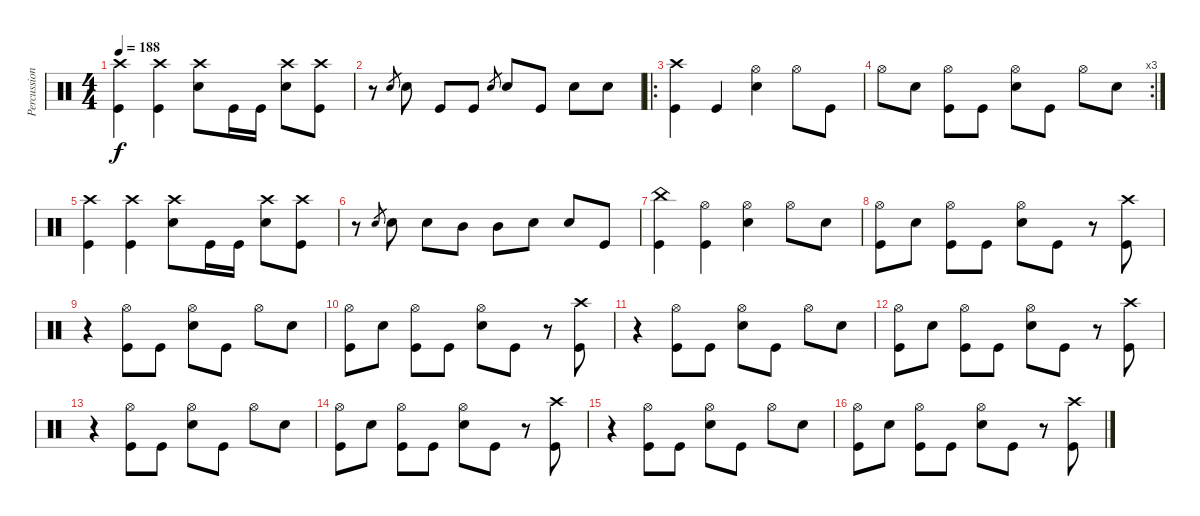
\track ("Percussion" "Percussion") {instrument percussion}
\staff {score}
\articulation defaults
\ts (4 4)
\tempo 188
\clef neutral
\ks c
("Kick (hit)" "Crash high (hit)").4{dy f} ("Crash high (hit)" "Kick (hit)").4 ("Snare (hit) 2" "Crash high (hit)").8 "Kick (hit)".16 "Kick (hit)".16 ("Snare (hit) 2" "Crash high (hit)").8 ("Kick (hit)" "Crash high (hit)").8 |
r.8 "Snare (hit) 2".8{gr} "Snare (hit) 2".8 "Kick (hit)".8 "Kick (hit)".8 "Snare (hit) 2".8{gr} "Snare (hit) 2".8 "Kick (hit)".8 "Snare (hit) 2".8 "Snare (hit) 2".8 |
\ro
("Crash high (hit)" "Kick (hit)").4 "Kick (hit)".4 ("Snare (hit) 2" "Hi-Hat (open)").4 "Hi-Hat (open)".8 "Kick (hit)".8 |
\rc 3 "Hi-Hat (open)".8 "Snare (hit) 2".8
("Kick (hit)" "Hi-Hat (open)").8 "Kick (hit)".8 ("Snare (hit) 2" "Hi-Hat (open)").8 "Kick (hit)".8 "Hi-Hat (open)".8 "Snare (hit) 2".8 |
("Kick (hit)" "Crash high (hit)").4 ("Crash high (hit)" "Kick (hit)").4 ("Snare (hit) 2" "Crash high (hit)").8 "Kick (hit)".16 "Kick (hit)".16 ("Snare (hit) 2" "Crash high (hit)").8 ("Kick (hit)" "Crash high (hit)").8 |
r.8 "Snare (hit) 2".8{gr} "Snare (hit) 2".8 "Snare (hit) 2".8 "Mid Tom (hit)".8 "Mid Tom (hit)".8 "Snare (hit) 2".8 "Snare (hit) 2".8 "Kick (hit)".8 |
("Kick (hit)" "China (hit)").4 ("Kick (hit)" "Hi-Hat (open)").4 ("Snare (hit) 2" "Hi-Hat (open)").4 "Hi-Hat (open)".8 "Snare (hit) 2".8 |
("Kick (hit)" "Hi-Hat (open)").8 "Snare (hit) 2".8 ("Kick (hit)" "Hi-Hat (open)").8 "Kick (hit)".8 ("Snare (hit) 2" "Hi-Hat (open)").8 "Kick (hit)".8 r.8 ("Kick (hit)" "Crash high (hit)").8 |
r.4 ("Kick (hit)" "Hi-Hat (open)").8 "Kick (hit)".8 ("Snare (hit) 2" "Hi-Hat (open)").8 "Kick (hit)".8 "Hi-Hat (open)".8 "Snare (hit) 2".8 |
("Kick (hit)" "Hi-Hat (open)").8 "Snare (hit) 2".8 ("Kick (hit)" "Hi-Hat (open)").8 "Kick (hit)".8 ("Snare (hit) 2" "Hi-Hat (open)").8 "Kick (hit)".8 r.8 ("Kick (hit)" "Crash high (hit)").8 |
r.4 ("Kick (hit)" "Hi-Hat (open)").8 "Kick (hit)".8 ("Snare (hit) 2" "Hi-Hat (open)").8 "Kick (hit)".8 "Hi-Hat (open)".8 "Snare (hit) 2".8 |
("Kick (hit)" "Hi-Hat (open)").8 "Snare (hit) 2".8 ("Kick (hit)" "Hi-Hat (open)").8 "Kick (hit)".8 ("Snare (hit) 2" "Hi-Hat (open)").8 "Kick (hit)".8 r.8 ("Kick (hit)" "Crash high (hit)").8 |
r.4 ("Kick (hit)" "Hi-Hat (open)").8 "Kick (hit)".8 ("Snare (hit) 2" "Hi-Hat (open)").8 "Kick (hit)".8 "Hi-Hat (open)".8 "Snare (hit) 2".8 |
("Kick (hit)" "Hi-Hat (open)").8 "Snare (hit) 2".8 ("Kick (hit)" "Hi-Hat (open)").8 "Kick (hit)".8 ("Snare (hit) 2" "Hi-Hat (open)").8 "Kick (hit)".8 r.8 ("Kick (hit)" "Crash high (hit)").8 |
r.4 ("Kick (hit)" "Hi-Hat (open)").8 "Kick (hit)".8 ("Snare (hit) 2" "Hi-Hat (open)").8 "Kick (hit)".8 "Hi-Hat (open)".8 "Snare (hit) 2".8 |
("Kick (hit)" "Hi-Hat (open)").8 "Snare (hit) 2".8 ("Kick (hit)" "Hi-Hat (open)").8 "Kick (hit)".8 ("Snare (hit) 2" "Hi-Hat (open)").8 "Kick (hit)".8 r.8 ("Kick (hit)" "Crash high (hit)").8
